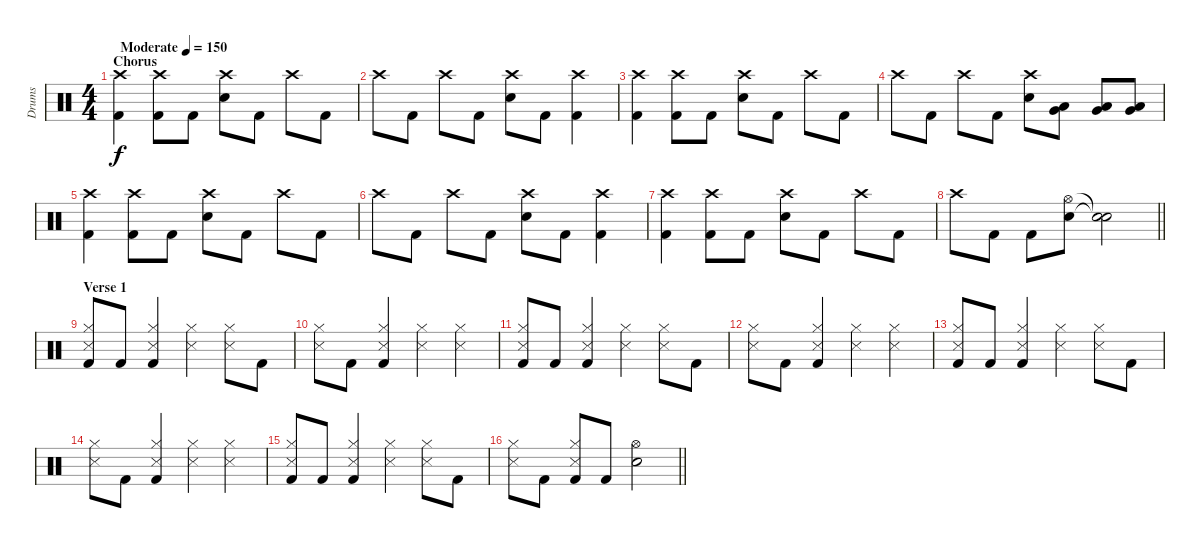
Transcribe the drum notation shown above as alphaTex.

\track ("Drums" "Drums") {instrument percussion}
\staff {score}
\articulation defaults
\ts (4 4)
\section ("" "Chorus")
\tempo (150 "Moderate")
\clef neutral
\ks c
("Crash high (hit)" "Kick (hit) 2").4{dy f} ("Crash high (hit)" "Kick (hit) 2").8 "Kick (hit) 2".8 ("Crash high (hit)" "Snare (hit) 2").8 "Kick (hit) 2".8 "Crash high (hit)".8 "Kick (hit) 2".8 |
"Crash high (hit)".8 "Kick (hit) 2".8 "Crash high (hit)".8 "Kick (hit) 2".8 ("Crash high (hit)" "Snare (hit) 2").8 "Kick (hit) 2".8 ("Crash high (hit)" "Kick (hit) 2").4 |
("Crash high (hit)" "Kick (hit) 2").4 ("Crash high (hit)" "Kick (hit) 2").8 "Kick (hit) 2".8 ("Crash high (hit)" "Snare (hit) 2").8 "Kick (hit) 2".8 "Crash high (hit)".8 "Kick (hit) 2".8 |
"Crash high (hit)".8 "Kick (hit) 2".8 "Crash high (hit)".8 "Kick (hit) 2".8 ("Crash high (hit)" "Snare (hit) 2").8 ("Very Low Tom (hit)" "Low Tom (hit)").8 ("Very Low Tom (hit)" "Low Tom (hit)").8 ("Very Low Tom (hit)" "Low Tom (hit)").8 |
("Crash high (hit)" "Kick (hit) 2").4 ("Crash high (hit)" "Kick (hit) 2").8 "Kick (hit) 2".8 ("Crash high (hit)" "Snare (hit) 2").8 "Kick (hit) 2".8 "Crash high (hit)".8 "Kick (hit) 2".8 |
"Crash high (hit)".8 "Kick (hit) 2".8 "Crash high (hit)".8 "Kick (hit) 2".8 ("Crash high (hit)" "Snare (hit) 2").8 "Kick (hit) 2".8 ("Crash high (hit)" "Kick (hit) 2").4 |
("Crash high (hit)" "Kick (hit) 2").4 ("Crash high (hit)" "Kick (hit) 2").8 "Kick (hit) 2".8 ("Crash high (hit)" "Snare (hit) 2").8 "Kick (hit) 2".8 "Crash high (hit)".8 "Kick (hit) 2".8 |
\barLineRight lightlight "Crash high (hit)".8 "Kick (hit) 2".8 "Kick (hit) 2".8
("Hi-Hat (open)" "Snare (hit) 2").8 ("Snare (hit)"{t} "Snare (hit)"{t}).2 |
\section ("" "Verse 1")
("Hi-Hat (closed)" "Snare (side stick) 3" "Kick (hit) 2").8 "Kick (hit) 2".8 ("Hi-Hat (closed)" "Snare (side stick) 3" "Kick (hit) 2").4 ("Hi-Hat (closed)" "Snare (side stick) 3").4 ("Hi-Hat (closed)" "Snare (side stick) 3").8 "Kick (hit) 2".8 |
("Hi-Hat (closed)" "Snare (side stick) 3").8 "Kick (hit) 2".8 ("Hi-Hat (closed)" "Snare (side stick) 3" "Kick (hit) 2").4 ("Hi-Hat (closed)" "Snare (side stick) 3").4 ("Hi-Hat (closed)" "Snare (side stick) 3").4 |
("Hi-Hat (closed)" "Snare (side stick) 3" "Kick (hit) 2").8 "Kick (hit) 2".8 ("Hi-Hat (closed)" "Snare (side stick) 3" "Kick (hit) 2").4 ("Hi-Hat (closed)" "Snare (side stick) 3").4 ("Hi-Hat (closed)" "Snare (side stick) 3").8 "Kick (hit) 2".8 |
("Hi-Hat (closed)" "Snare (side stick) 3").8 "Kick (hit) 2".8 ("Hi-Hat (closed)" "Snare (side stick) 3" "Kick (hit) 2").4 ("Hi-Hat (closed)" "Snare (side stick) 3").4 ("Hi-Hat (closed)" "Snare (side stick) 3").4 |
("Hi-Hat (closed)" "Snare (side stick) 3" "Kick (hit) 2").8 "Kick (hit) 2".8 ("Hi-Hat (closed)" "Snare (side stick) 3" "Kick (hit) 2").4 ("Hi-Hat (closed)" "Snare (side stick) 3").4 ("Hi-Hat (closed)" "Snare (side stick) 3").8 "Kick (hit) 2".8 |
("Hi-Hat (closed)" "Snare (side stick) 3").8 "Kick (hit) 2".8 ("Hi-Hat (closed)" "Snare (side stick) 3" "Kick (hit) 2").4 ("Hi-Hat (closed)" "Snare (side stick) 3").4 ("Hi-Hat (closed)" "Snare (side stick) 3").4 |
("Hi-Hat (closed)" "Snare (side stick) 3" "Kick (hit) 2").8 "Kick (hit) 2".8 ("Hi-Hat (closed)" "Snare (side stick) 3" "Kick (hit) 2").4 ("Hi-Hat (closed)" "Snare (side stick) 3").4 ("Hi-Hat (closed)" "Snare (side stick) 3").8 "Kick (hit) 2".8 |
\barLineRight lightlight
("Hi-Hat (closed)" "Snare (side stick) 3").8 "Kick (hit) 2".8 ("Hi-Hat (closed)" "Snare (side stick) 3" "Kick (hit) 2").8 "Kick (hit) 2".8 ("Hi-Hat (open)" "Snare (hit) 2").2
